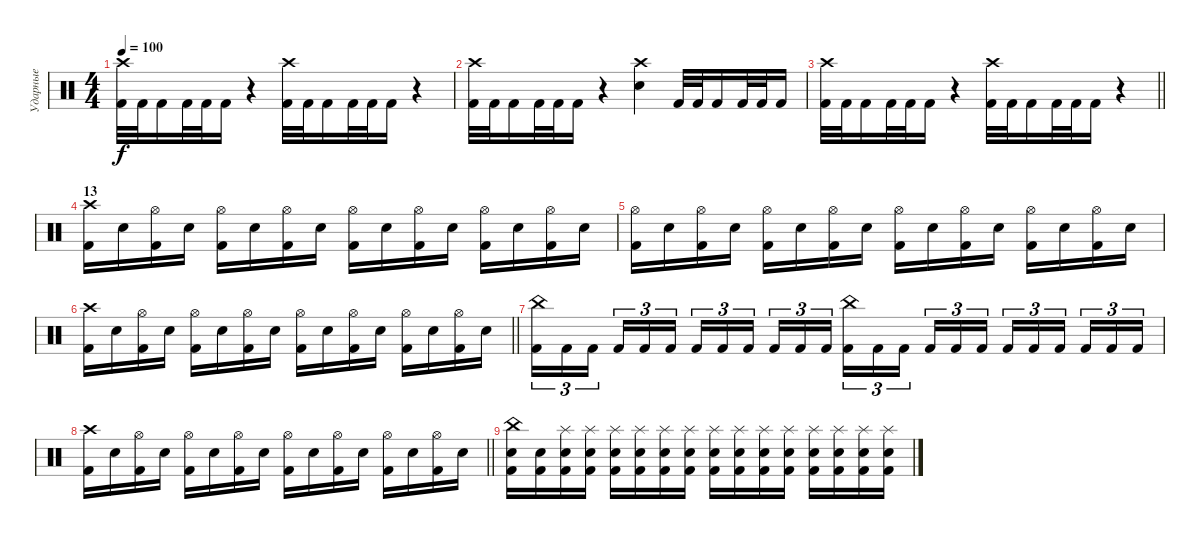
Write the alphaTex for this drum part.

\track ("Ударные" "Ударные") {instrument percussion}
\staff {score}
\articulation defaults
\ts (4 4)
\tempo 100
\clef neutral
\ks c
("Crash high (hit)" "Kick (hit) 2").32{dy f} "Kick (hit) 2".32 "Kick (hit) 2".16 "Kick (hit) 2".32 "Kick (hit) 2".32 "Kick (hit) 2".16 r.4 ("Crash high (hit)" "Kick (hit) 2").32 "Kick (hit) 2".32 "Kick (hit) 2".16 "Kick (hit) 2".32 "Kick (hit) 2".32 "Kick (hit) 2".16 r.4 |
("Crash high (hit)" "Kick (hit) 2").32 "Kick (hit) 2".32 "Kick (hit) 2".16 "Kick (hit) 2".32 "Kick (hit) 2".32 "Kick (hit) 2".16 r.4 ("Crash high (hit)" "Electric Snare (hit)").4 "Kick (hit) 2".32 "Kick (hit) 2".32 "Kick (hit) 2".16 "Kick (hit) 2".32 "Kick (hit) 2".32 "Kick (hit) 2".16 |
\barLineRight lightlight
("Crash high (hit)" "Kick (hit) 2").32 "Kick (hit) 2".32 "Kick (hit) 2".16 "Kick (hit) 2".32 "Kick (hit) 2".32 "Kick (hit) 2".16 r.4 ("Crash high (hit)" "Kick (hit) 2").32 "Kick (hit) 2".32 "Kick (hit) 2".16 "Kick (hit) 2".32 "Kick (hit) 2".32 "Kick (hit) 2".16 r.4 |
\section ("" "13")
("Crash high (hit)" "Kick (hit) 2").16 "Electric Snare (hit)".16 ("Hi-Hat (open)" "Kick (hit) 2").16 "Electric Snare (hit)".16 ("Hi-Hat (open)" "Kick (hit) 2").16 "Electric Snare (hit)".16 ("Hi-Hat (open)" "Kick (hit) 2").16 "Electric Snare (hit)".16 ("Hi-Hat (open)" "Kick (hit) 2").16 "Electric Snare (hit)".16 ("Hi-Hat (open)" "Kick (hit) 2").16 "Electric Snare (hit)".16 ("Hi-Hat (open)" "Kick (hit) 2").16 "Electric Snare (hit)".16 ("Hi-Hat (open)" "Kick (hit) 2").16 "Electric Snare (hit)".16 |
("Hi-Hat (open)" "Kick (hit) 2").16 "Electric Snare (hit)".16 ("Hi-Hat (open)" "Kick (hit) 2").16 "Electric Snare (hit)".16 ("Hi-Hat (open)" "Kick (hit) 2").16 "Electric Snare (hit)".16 ("Hi-Hat (open)" "Kick (hit) 2").16 "Electric Snare (hit)".16 ("Hi-Hat (open)" "Kick (hit) 2").16 "Electric Snare (hit)".16 ("Hi-Hat (open)" "Kick (hit) 2").16 "Electric Snare (hit)".16 ("Hi-Hat (open)" "Kick (hit) 2").16 "Electric Snare (hit)".16 ("Hi-Hat (open)" "Kick (hit) 2").16 "Electric Snare (hit)".16 |
\barLineRight lightlight
("Crash high (hit)" "Kick (hit) 2").16 "Electric Snare (hit)".16 ("Hi-Hat (open)" "Kick (hit) 2").16 "Electric Snare (hit)".16 ("Hi-Hat (open)" "Kick (hit) 2").16 "Electric Snare (hit)".16 ("Hi-Hat (open)" "Kick (hit) 2").16 "Electric Snare (hit)".16 ("Hi-Hat (open)" "Kick (hit) 2").16 "Electric Snare (hit)".16 ("Hi-Hat (open)" "Kick (hit) 2").16 "Electric Snare (hit)".16 ("Hi-Hat (open)" "Kick (hit) 2").16 "Electric Snare (hit)".16 ("Hi-Hat (open)" "Kick (hit) 2").16 "Electric Snare (hit)".16 |
("China (hit)" "Kick (hit) 2").16{tu (3 2)} "Kick (hit) 2".16{tu (3 2)} "Kick (hit) 2".16{tu (3 2) beam splitsecondary} "Kick (hit) 2".16{tu (3 2)} "Kick (hit) 2".16{tu (3 2)} "Kick (hit) 2".16{tu (3 2)} "Kick (hit) 2".16{tu (3 2)} "Kick (hit) 2".16{tu (3 2)} "Kick (hit) 2".16{tu (3 2) beam splitsecondary} "Kick (hit) 2".16{tu (3 2)} "Kick (hit) 2".16{tu (3 2)} "Kick (hit) 2".16{tu (3 2)} ("China (hit)" "Kick (hit) 2").16{tu (3 2)} "Kick (hit) 2".16{tu (3 2)} "Kick (hit) 2".16{tu (3 2) beam splitsecondary} "Kick (hit) 2".16{tu (3 2)} "Kick (hit) 2".16{tu (3 2)} "Kick (hit) 2".16{tu (3 2)} "Kick (hit) 2".16{tu (3 2)} "Kick (hit) 2".16{tu (3 2)} "Kick (hit) 2".16{tu (3 2) beam splitsecondary} "Kick (hit) 2".16{tu (3 2)} "Kick (hit) 2".16{tu (3 2)} "Kick (hit) 2".16{tu (3 2)} |
\barLineRight lightlight
("Crash high (hit)" "Kick (hit) 2").16 "Electric Snare (hit)".16 ("Hi-Hat (open)" "Kick (hit) 2").16 "Electric Snare (hit)".16 ("Hi-Hat (open)" "Kick (hit) 2").16 "Electric Snare (hit)".16 ("Hi-Hat (open)" "Kick (hit) 2").16 "Electric Snare (hit)".16 ("Hi-Hat (open)" "Kick (hit) 2").16 "Electric Snare (hit)".16 ("Hi-Hat (open)" "Kick (hit) 2").16 "Electric Snare (hit)".16 ("Hi-Hat (open)" "Kick (hit) 2").16 "Electric Snare (hit)".16 ("Hi-Hat (open)" "Kick (hit) 2").16 "Electric Snare (hit)".16 |
("China (hit)" "Electric Snare (hit)" "Kick (hit) 2").16 ("Electric Snare (hit)" "Kick (hit) 2").16 ("Splash (hit)" "Electric Snare (hit)" "Kick (hit) 2").16 ("Splash (hit)" "Electric Snare (hit)" "Kick (hit) 2").16 ("Splash (hit)" "Electric Snare (hit)" "Kick (hit) 2").16 ("Splash (hit)" "Electric Snare (hit)" "Kick (hit) 2").16 ("Splash (hit)" "Electric Snare (hit)" "Kick (hit) 2").16 ("Splash (hit)" "Electric Snare (hit)" "Kick (hit) 2").16 ("Splash (hit)" "Electric Snare (hit)" "Kick (hit) 2").16 ("Splash (hit)" "Electric Snare (hit)" "Kick (hit) 2").16 ("Splash (hit)" "Electric Snare (hit)" "Kick (hit) 2").16 ("Splash (hit)" "Electric Snare (hit)" "Kick (hit) 2").16 ("Splash (hit)" "Electric Snare (hit)" "Kick (hit) 2").16 ("Splash (hit)" "Electric Snare (hit)" "Kick (hit) 2").16 ("Splash (hit)" "Electric Snare (hit)" "Kick (hit) 2").16 ("Splash (hit)" "Electric Snare (hit)" "Kick (hit) 2").16
